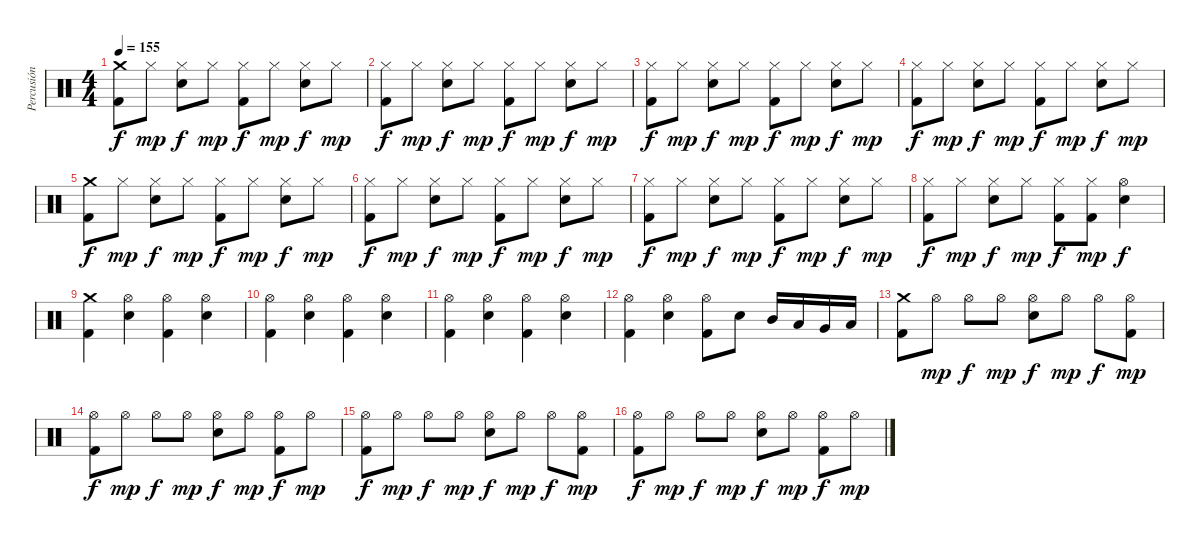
\track ("Percusión" "Percusión") {instrument percussion}
\staff {score}
\articulation defaults
\ts (4 4)
\tempo 155
\clef neutral
\ks c
("Crash medium (hit)" "Kick (hit) 2").8{dy f} "Hi-Hat (closed)".8{dy mp} ("Hi-Hat (closed)" "Electric Snare (hit)").8{dy f} "Hi-Hat (closed)".8{dy mp} ("Hi-Hat (closed)" "Kick (hit) 2").8{dy f} "Hi-Hat (closed)".8{dy mp} ("Hi-Hat (closed)" "Electric Snare (hit)").8{dy f} "Hi-Hat (closed)".8{dy mp} |
("Hi-Hat (closed)" "Kick (hit) 2").8{dy f} "Hi-Hat (closed)".8{dy mp} ("Hi-Hat (closed)" "Electric Snare (hit)").8{dy f} "Hi-Hat (closed)".8{dy mp} ("Hi-Hat (closed)" "Kick (hit) 2").8{dy f} "Hi-Hat (closed)".8{dy mp} ("Hi-Hat (closed)" "Electric Snare (hit)").8{dy f} "Hi-Hat (closed)".8{dy mp} |
("Hi-Hat (closed)" "Kick (hit) 2").8{dy f} "Hi-Hat (closed)".8{dy mp} ("Hi-Hat (closed)" "Electric Snare (hit)").8{dy f} "Hi-Hat (closed)".8{dy mp} ("Hi-Hat (closed)" "Kick (hit) 2").8{dy f} "Hi-Hat (closed)".8{dy mp} ("Hi-Hat (closed)" "Electric Snare (hit)").8{dy f} "Hi-Hat (closed)".8{dy mp} |
("Hi-Hat (closed)" "Kick (hit) 2").8{dy f} "Hi-Hat (closed)".8{dy mp} ("Hi-Hat (closed)" "Electric Snare (hit)").8{dy f} "Hi-Hat (closed)".8{dy mp} ("Hi-Hat (closed)" "Kick (hit) 2").8{dy f} "Hi-Hat (closed)".8{dy mp} ("Hi-Hat (closed)" "Electric Snare (hit)").8{dy f} "Hi-Hat (closed)".8{dy mp} |
("Crash medium (hit)" "Kick (hit) 2").8{dy f} "Hi-Hat (closed)".8{dy mp} ("Hi-Hat (closed)" "Electric Snare (hit)").8{dy f} "Hi-Hat (closed)".8{dy mp} ("Hi-Hat (closed)" "Kick (hit) 2").8{dy f} "Hi-Hat (closed)".8{dy mp} ("Hi-Hat (closed)" "Electric Snare (hit)").8{dy f} "Hi-Hat (closed)".8{dy mp} |
("Hi-Hat (closed)" "Kick (hit) 2").8{dy f} "Hi-Hat (closed)".8{dy mp} ("Hi-Hat (closed)" "Electric Snare (hit)").8{dy f} "Hi-Hat (closed)".8{dy mp} ("Hi-Hat (closed)" "Kick (hit) 2").8{dy f} "Hi-Hat (closed)".8{dy mp} ("Hi-Hat (closed)" "Electric Snare (hit)").8{dy f} "Hi-Hat (closed)".8{dy mp} |
("Hi-Hat (closed)" "Kick (hit) 2").8{dy f} "Hi-Hat (closed)".8{dy mp} ("Hi-Hat (closed)" "Electric Snare (hit)").8{dy f} "Hi-Hat (closed)".8{dy mp} ("Hi-Hat (closed)" "Kick (hit) 2").8{dy f} "Hi-Hat (closed)".8{dy mp} ("Hi-Hat (closed)" "Electric Snare (hit)").8{dy f} "Hi-Hat (closed)".8{dy mp} |
("Hi-Hat (closed)" "Kick (hit) 2").8{dy f} "Hi-Hat (closed)".8{dy mp} ("Hi-Hat (closed)" "Electric Snare (hit)").8{dy f} "Hi-Hat (closed)".8{dy mp} ("Hi-Hat (closed)" "Kick (hit) 2").8{dy f} ("Hi-Hat (closed)" "Kick (hit) 2").8{dy mp} ("Hi-Hat (open)" "Electric Snare (hit)").4{dy f} |
("Crash medium (hit)" "Kick (hit) 2").4 ("Hi-Hat (open)" "Electric Snare (hit)").4 ("Hi-Hat (open)" "Kick (hit) 2").4 ("Hi-Hat (open)" "Electric Snare (hit)").4 |
("Hi-Hat (open)" "Kick (hit) 2").4 ("Hi-Hat (open)" "Electric Snare (hit)").4 ("Hi-Hat (open)" "Kick (hit) 2").4 ("Hi-Hat (open)" "Electric Snare (hit)").4 |
("Hi-Hat (open)" "Kick (hit) 2").4 ("Hi-Hat (open)" "Electric Snare (hit)").4 ("Hi-Hat (open)" "Kick (hit) 2").4 ("Hi-Hat (open)" "Electric Snare (hit)").4 |
("Hi-Hat (open)" "Kick (hit) 2").4 ("Hi-Hat (open)" "Electric Snare (hit)").4 ("Hi-Hat (open)" "Kick (hit) 2").8 "Electric Snare (hit)".8 "Mid Tom (hit)".16 "Low Tom (hit)".16 "Very Low Tom (hit)".16 "Low Floor Tom (hit)".16 |
("Crash medium (hit)" "Kick (hit) 2").8 "Hi-Hat (open)".8{dy mp} "Hi-Hat (open)".8{dy f} "Hi-Hat (open)".8{dy mp} ("Hi-Hat (open)" "Electric Snare (hit)").8{dy f} "Hi-Hat (open)".8{dy mp} "Hi-Hat (open)".8{dy f} ("Hi-Hat (open)" "Kick (hit) 2").8{dy mp} |
("Hi-Hat (open)" "Kick (hit) 2").8{dy f} "Hi-Hat (open)".8{dy mp} "Hi-Hat (open)".8{dy f} "Hi-Hat (open)".8{dy mp} ("Hi-Hat (open)" "Electric Snare (hit)").8{dy f} "Hi-Hat (open)".8{dy mp} ("Hi-Hat (open)" "Kick (hit) 2").8{dy f} "Hi-Hat (open)".8{dy mp} |
("Hi-Hat (open)" "Kick (hit) 2").8{dy f} "Hi-Hat (open)".8{dy mp} "Hi-Hat (open)".8{dy f} "Hi-Hat (open)".8{dy mp} ("Hi-Hat (open)" "Electric Snare (hit)").8{dy f} "Hi-Hat (open)".8{dy mp} "Hi-Hat (open)".8{dy f} ("Hi-Hat (open)" "Kick (hit) 2").8{dy mp} |
("Hi-Hat (open)" "Kick (hit) 2").8{dy f} "Hi-Hat (open)".8{dy mp} "Hi-Hat (open)".8{dy f} "Hi-Hat (open)".8{dy mp} ("Hi-Hat (open)" "Electric Snare (hit)").8{dy f} "Hi-Hat (open)".8{dy mp} ("Hi-Hat (open)" "Kick (hit) 2").8{dy f} "Hi-Hat (open)".8{dy mp}
